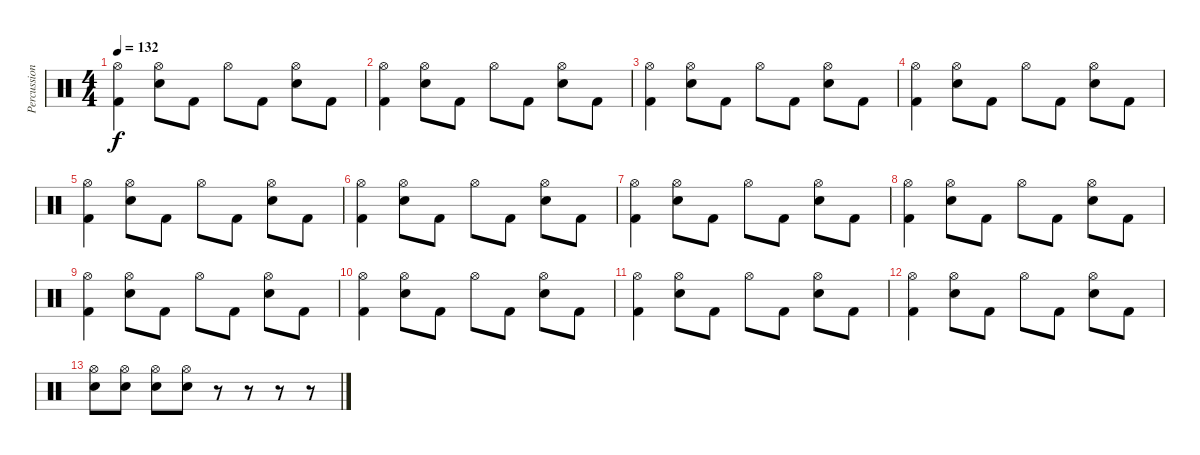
\track ("Percussions" "Percussion") {instrument percussion}
\staff {score}
\articulation defaults
\ts (4 4)
\tempo 132
\clef neutral
\ks c
("Kick (hit) 2" "Hi-Hat (open)").4{dy f} ("Electric Snare (hit)" "Hi-Hat (open)").8 "Kick (hit) 2".8 "Hi-Hat (open)".8 "Kick (hit) 2".8 ("Electric Snare (hit)" "Hi-Hat (open)").8 "Kick (hit) 2".8 |
("Kick (hit) 2" "Hi-Hat (open)").4 ("Electric Snare (hit)" "Hi-Hat (open)").8 "Kick (hit) 2".8 "Hi-Hat (open)".8 "Kick (hit) 2".8 ("Electric Snare (hit)" "Hi-Hat (open)").8 "Kick (hit) 2".8 |
("Kick (hit) 2" "Hi-Hat (open)").4 ("Electric Snare (hit)" "Hi-Hat (open)").8 "Kick (hit) 2".8 "Hi-Hat (open)".8 "Kick (hit) 2".8 ("Electric Snare (hit)" "Hi-Hat (open)").8 "Kick (hit) 2".8 |
("Kick (hit) 2" "Hi-Hat (open)").4 ("Electric Snare (hit)" "Hi-Hat (open)").8 "Kick (hit) 2".8 "Hi-Hat (open)".8 "Kick (hit) 2".8 ("Electric Snare (hit)" "Hi-Hat (open)").8 "Kick (hit) 2".8 |
("Kick (hit) 2" "Hi-Hat (open)").4 ("Electric Snare (hit)" "Hi-Hat (open)").8 "Kick (hit) 2".8 "Hi-Hat (open)".8 "Kick (hit) 2".8 ("Electric Snare (hit)" "Hi-Hat (open)").8 "Kick (hit) 2".8 |
("Kick (hit) 2" "Hi-Hat (open)").4 ("Electric Snare (hit)" "Hi-Hat (open)").8 "Kick (hit) 2".8 "Hi-Hat (open)".8 "Kick (hit) 2".8 ("Electric Snare (hit)" "Hi-Hat (open)").8 "Kick (hit) 2".8 |
("Kick (hit) 2" "Hi-Hat (open)").4 ("Electric Snare (hit)" "Hi-Hat (open)").8 "Kick (hit) 2".8 "Hi-Hat (open)".8 "Kick (hit) 2".8 ("Electric Snare (hit)" "Hi-Hat (open)").8 "Kick (hit) 2".8 |
("Kick (hit) 2" "Hi-Hat (open)").4 ("Electric Snare (hit)" "Hi-Hat (open)").8 "Kick (hit) 2".8 "Hi-Hat (open)".8 "Kick (hit) 2".8 ("Electric Snare (hit)" "Hi-Hat (open)").8 "Kick (hit) 2".8 |
("Kick (hit) 2" "Hi-Hat (open)").4 ("Electric Snare (hit)" "Hi-Hat (open)").8 "Kick (hit) 2".8 "Hi-Hat (open)".8 "Kick (hit) 2".8 ("Electric Snare (hit)" "Hi-Hat (open)").8 "Kick (hit) 2".8 |
("Kick (hit) 2" "Hi-Hat (open)").4 ("Electric Snare (hit)" "Hi-Hat (open)").8 "Kick (hit) 2".8 "Hi-Hat (open)".8 "Kick (hit) 2".8 ("Electric Snare (hit)" "Hi-Hat (open)").8 "Kick (hit) 2".8 |
("Kick (hit) 2" "Hi-Hat (open)").4 ("Electric Snare (hit)" "Hi-Hat (open)").8 "Kick (hit) 2".8 "Hi-Hat (open)".8 "Kick (hit) 2".8 ("Electric Snare (hit)" "Hi-Hat (open)").8 "Kick (hit) 2".8 |
("Kick (hit) 2" "Hi-Hat (open)").4 ("Electric Snare (hit)" "Hi-Hat (open)").8 "Kick (hit) 2".8 "Hi-Hat (open)".8 "Kick (hit) 2".8 ("Electric Snare (hit)" "Hi-Hat (open)").8 "Kick (hit) 2".8 |
("Electric Snare (hit)" "Hi-Hat (open)").8 ("Electric Snare (hit)" "Hi-Hat (open)").8 ("Electric Snare (hit)" "Hi-Hat (open)").8 ("Electric Snare (hit)" "Hi-Hat (open)").8 r.8 r.8 r.8 r.8
